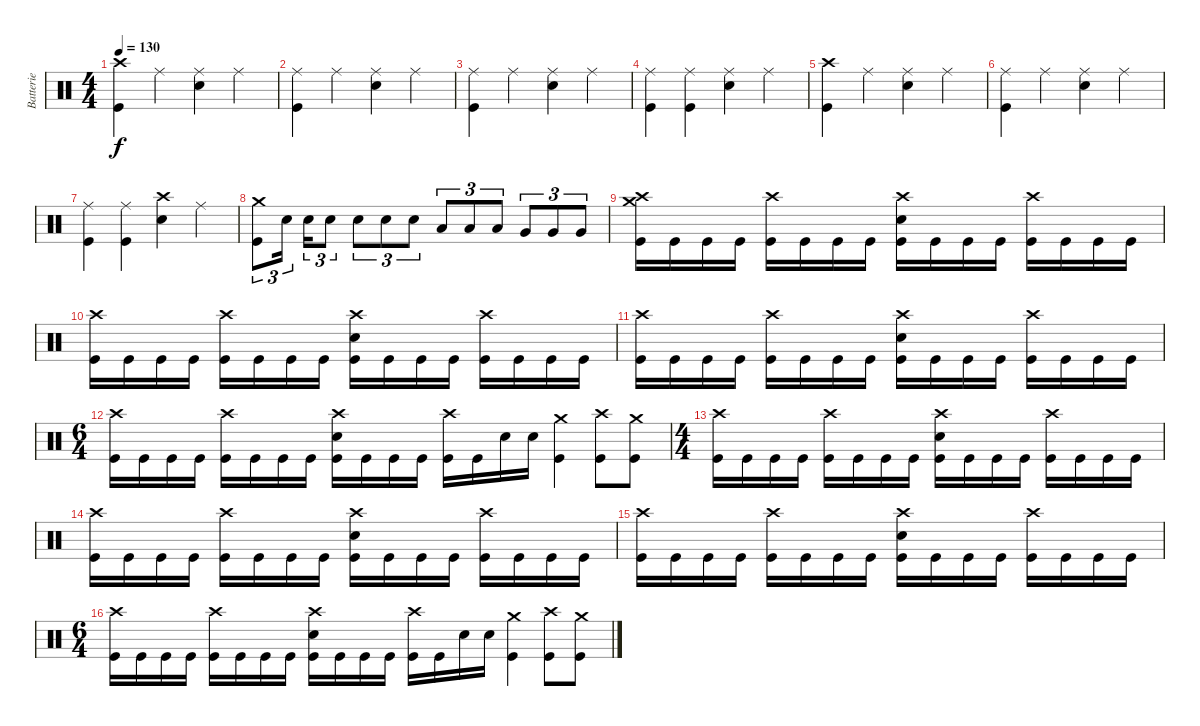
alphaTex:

\track ("Batterie" "Batterie") {instrument percussion}
\staff {score}
\articulation defaults
\ts (4 4)
\tempo 130
\clef neutral
\ks c
("Crash high (hit)" "Kick (hit)").4{dy f} "Ride (middle)".4 ("Ride (middle)" "Electric Snare (hit)").4 "Ride (middle)".4 |
("Ride (middle)" "Kick (hit)").4 "Ride (middle)".4 ("Ride (middle)" "Electric Snare (hit)").4 "Ride (middle)".4 |
("Ride (middle)" "Kick (hit)").4 "Ride (middle)".4 ("Ride (middle)" "Electric Snare (hit)").4 "Ride (middle)".4 |
("Ride (middle)" "Kick (hit)").4 ("Ride (middle)" "Kick (hit)").4 ("Ride (middle)" "Electric Snare (hit)").4 "Ride (middle)".4 |
("Crash high (hit)" "Kick (hit)").4 "Ride (middle)".4 ("Ride (middle)" "Electric Snare (hit)").4 "Ride (middle)".4 |
("Ride (middle)" "Kick (hit)").4 "Ride (middle)".4 ("Ride (middle)" "Electric Snare (hit)").4 "Ride (middle)".4 |
("Ride (middle)" "Kick (hit)").4 ("Ride (middle)" "Kick (hit)").4 ("Crash high (hit)" "Electric Snare (hit)").4 "Ride (middle)".4 |
("Crash medium (hit)" "Kick (hit)").8{tu (3 2)} "Electric Snare (hit)".16{tu (3 2) beam splitsecondary} "Electric Snare (hit)".16{tu (3 2)} "Electric Snare (hit)".8{tu (3 2)} "Electric Snare (hit)".8{tu (3 2)} "Electric Snare (hit)".8{tu (3 2)} "Electric Snare (hit)".8{tu (3 2)} "Low Tom (hit)".8{tu (3 2)} "Low Tom (hit)".8{tu (3 2)} "Low Tom (hit)".8{tu (3 2)} "Very Low Tom (hit)".8{tu (3 2)} "Very Low Tom (hit)".8{tu (3 2)} "Very Low Tom (hit)".8{tu (3 2)} |
("Crash medium (hit)" "Crash high (hit)" "Kick (hit)").16 "Kick (hit)".16 "Kick (hit)".16 "Kick (hit)".16 ("Crash high (hit)" "Kick (hit)").16 "Kick (hit)".16 "Kick (hit)".16 "Kick (hit)".16 ("Crash high (hit)" "Electric Snare (hit)" "Kick (hit)").16 "Kick (hit)".16 "Kick (hit)".16 "Kick (hit)".16 ("Crash high (hit)" "Kick (hit)").16 "Kick (hit)".16 "Kick (hit)".16 "Kick (hit)".16 |
("Crash high (hit)" "Kick (hit)").16 "Kick (hit)".16 "Kick (hit)".16 "Kick (hit)".16 ("Crash high (hit)" "Kick (hit)").16 "Kick (hit)".16 "Kick (hit)".16 "Kick (hit)".16 ("Crash high (hit)" "Electric Snare (hit)" "Kick (hit)").16 "Kick (hit)".16 "Kick (hit)".16 "Kick (hit)".16 ("Crash high (hit)" "Kick (hit)").16 "Kick (hit)".16 "Kick (hit)".16 "Kick (hit)".16 |
("Crash high (hit)" "Kick (hit)").16 "Kick (hit)".16 "Kick (hit)".16 "Kick (hit)".16 ("Crash high (hit)" "Kick (hit)").16 "Kick (hit)".16 "Kick (hit)".16 "Kick (hit)".16 ("Crash high (hit)" "Electric Snare (hit)" "Kick (hit)").16 "Kick (hit)".16 "Kick (hit)".16 "Kick (hit)".16 ("Crash high (hit)" "Kick (hit)").16 "Kick (hit)".16 "Kick (hit)".16 "Kick (hit)".16 |
\ts (6 4)
("Crash high (hit)" "Kick (hit)").16 "Kick (hit)".16 "Kick (hit)".16 "Kick (hit)".16 ("Crash high (hit)" "Kick (hit)").16 "Kick (hit)".16 "Kick (hit)".16 "Kick (hit)".16 ("Crash high (hit)" "Electric Snare (hit)" "Kick (hit)").16 "Kick (hit)".16 "Kick (hit)".16 "Kick (hit)".16 ("Crash high (hit)" "Kick (hit)").16 "Kick (hit)".16 "Electric Snare (hit)".16 "Electric Snare (hit)".16 ("Crash medium (hit)" "Kick (hit)").4 ("Crash high (hit)" "Kick (hit)").8 ("Crash medium (hit)" "Kick (hit)").8 |
\ts (4 4)
("Crash high (hit)" "Kick (hit)").16 "Kick (hit)".16 "Kick (hit)".16 "Kick (hit)".16 ("Crash high (hit)" "Kick (hit)").16 "Kick (hit)".16 "Kick (hit)".16 "Kick (hit)".16 ("Crash high (hit)" "Electric Snare (hit)" "Kick (hit)").16 "Kick (hit)".16 "Kick (hit)".16 "Kick (hit)".16 ("Crash high (hit)" "Kick (hit)").16 "Kick (hit)".16 "Kick (hit)".16 "Kick (hit)".16 |
("Crash high (hit)" "Kick (hit)").16 "Kick (hit)".16 "Kick (hit)".16 "Kick (hit)".16 ("Crash high (hit)" "Kick (hit)").16 "Kick (hit)".16 "Kick (hit)".16 "Kick (hit)".16 ("Crash high (hit)" "Electric Snare (hit)" "Kick (hit)").16 "Kick (hit)".16 "Kick (hit)".16 "Kick (hit)".16 ("Crash high (hit)" "Kick (hit)").16 "Kick (hit)".16 "Kick (hit)".16 "Kick (hit)".16 |
("Crash high (hit)" "Kick (hit)").16 "Kick (hit)".16 "Kick (hit)".16 "Kick (hit)".16 ("Crash high (hit)" "Kick (hit)").16 "Kick (hit)".16 "Kick (hit)".16 "Kick (hit)".16 ("Crash high (hit)" "Electric Snare (hit)" "Kick (hit)").16 "Kick (hit)".16 "Kick (hit)".16 "Kick (hit)".16 ("Crash high (hit)" "Kick (hit)").16 "Kick (hit)".16 "Kick (hit)".16 "Kick (hit)".16 |
\ts (6 4)
("Crash high (hit)" "Kick (hit)").16 "Kick (hit)".16 "Kick (hit)".16 "Kick (hit)".16 ("Crash high (hit)" "Kick (hit)").16 "Kick (hit)".16 "Kick (hit)".16 "Kick (hit)".16 ("Crash high (hit)" "Electric Snare (hit)" "Kick (hit)").16 "Kick (hit)".16 "Kick (hit)".16 "Kick (hit)".16 ("Crash high (hit)" "Kick (hit)").16 "Kick (hit)".16 "Electric Snare (hit)".16 "Electric Snare (hit)".16 ("Crash medium (hit)" "Kick (hit)").4 ("Crash high (hit)" "Kick (hit)").8 ("Crash medium (hit)" "Kick (hit)").8
